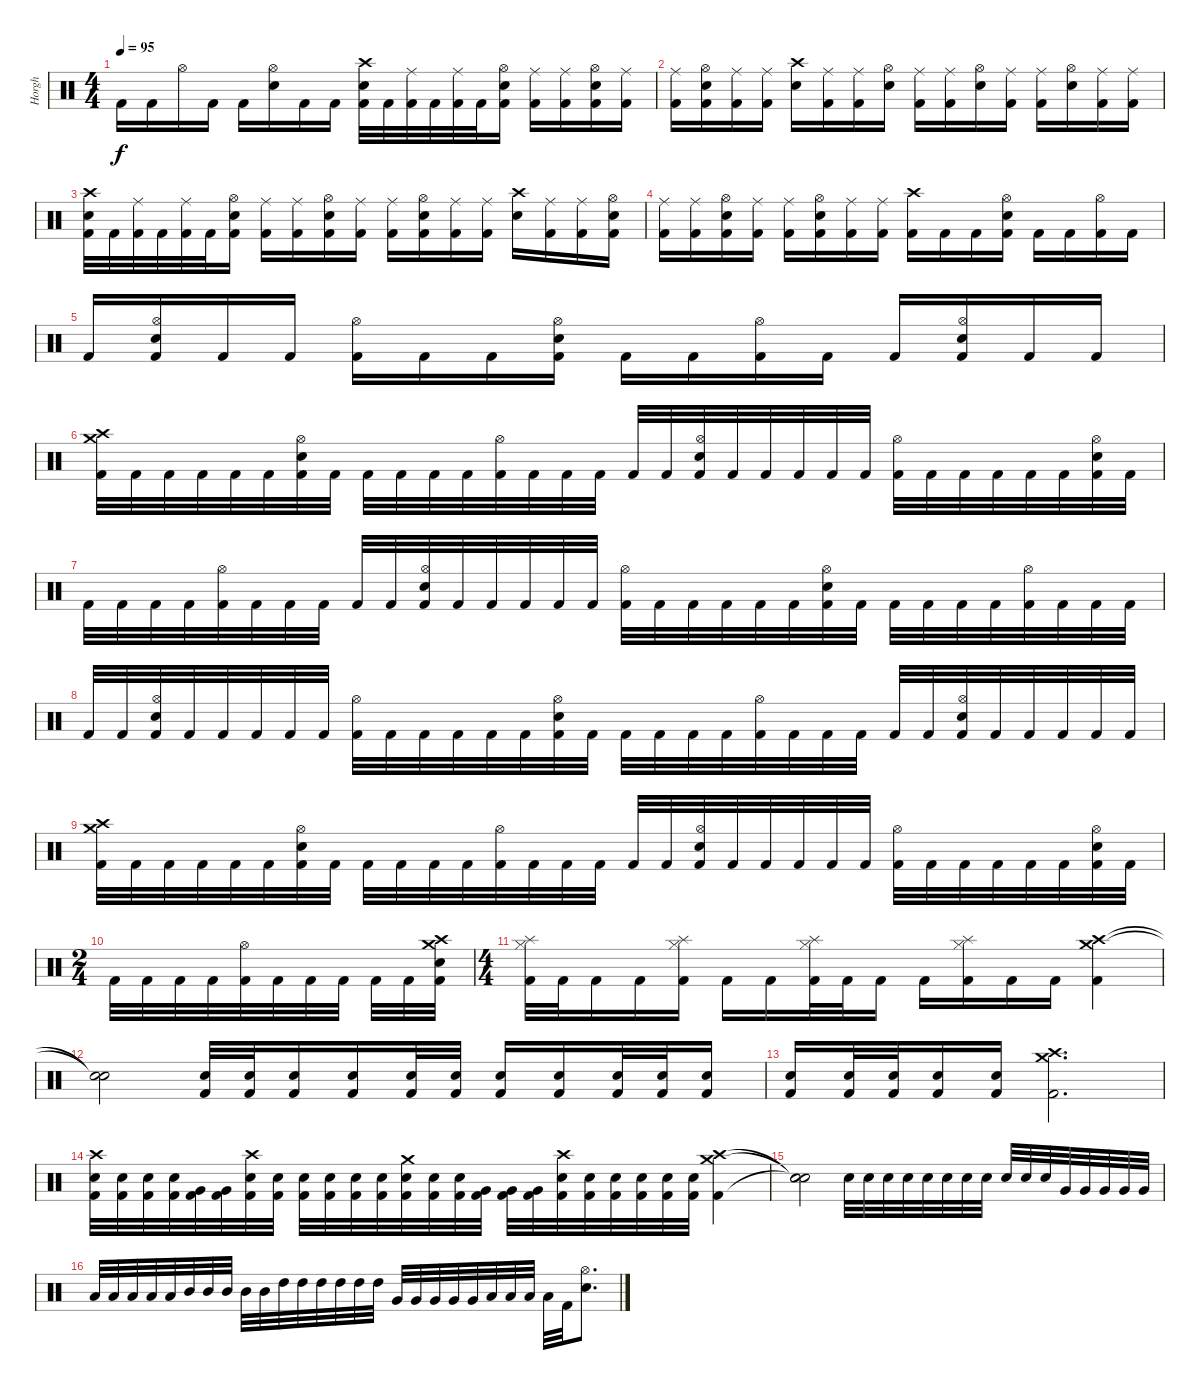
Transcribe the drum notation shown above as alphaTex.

\track ("Horgh" "Horgh") {instrument percussion}
\staff {score}
\articulation defaults
\ts (4 4)
\tempo 95
\clef neutral
\ks c "Kick (hit) 2".16{dy f} "Kick (hit) 2".16 "Hi-Hat (open)".16 "Kick (hit) 2".16 "Kick (hit) 2".16
("Hi-Hat (open)" "Snare (hit) 2").16 "Kick (hit) 2".16 "Kick (hit) 2".16 ("Crash high (hit)" "Snare (hit) 2" "Kick (hit) 2").32 "Kick (hit) 2".32 ("Ride (middle)" "Kick (hit) 2").32 "Kick (hit) 2".32 ("Ride (middle)" "Kick (hit) 2").32 "Kick (hit) 2".32 ("Hi-Hat (open)" "Snare (hit) 2" "Kick (hit) 2").16 ("Ride (middle)" "Kick (hit) 2").16 ("Ride (middle)" "Kick (hit) 2").16 ("Hi-Hat (open)" "Snare (hit) 2" "Kick (hit) 2").16 ("Ride (middle)" "Kick (hit) 2").16 |
("Ride (middle)" "Kick (hit) 2").16 ("Hi-Hat (open)" "Snare (hit) 2" "Kick (hit) 2").16 ("Ride (middle)" "Kick (hit) 2").16 ("Ride (middle)" "Kick (hit) 2").16 ("Crash high (hit)" "Snare (hit) 2").16 ("Ride (middle)" "Kick (hit) 2").16 ("Ride (middle)" "Kick (hit) 2").16 ("Hi-Hat (open)" "Snare (hit) 2").16 ("Ride (middle)" "Kick (hit) 2").16 ("Ride (middle)" "Kick (hit) 2").16 ("Hi-Hat (open)" "Snare (hit) 2").16 ("Ride (middle)" "Kick (hit) 2").16 ("Ride (middle)" "Kick (hit) 2").16 ("Hi-Hat (open)" "Snare (hit) 2").16 ("Ride (middle)" "Kick (hit) 2").16 ("Ride (middle)" "Kick (hit) 2").16 |
("Crash high (hit)" "Snare (hit) 2" "Kick (hit) 2").32 "Kick (hit) 2".32 ("Ride (middle)" "Kick (hit) 2").32 "Kick (hit) 2".32 ("Ride (middle)" "Kick (hit) 2").32 "Kick (hit) 2".32 ("Hi-Hat (open)" "Snare (hit) 2" "Kick (hit) 2").16 ("Ride (middle)" "Kick (hit) 2").16 ("Ride (middle)" "Kick (hit) 2").16 ("Hi-Hat (open)" "Snare (hit) 2" "Kick (hit) 2").16 ("Ride (middle)" "Kick (hit) 2").16 ("Ride (middle)" "Kick (hit) 2").16 ("Hi-Hat (open)" "Snare (hit) 2" "Kick (hit) 2").16 ("Ride (middle)" "Kick (hit) 2").16 ("Ride (middle)" "Kick (hit) 2").16 ("Crash high (hit)" "Snare (hit) 2").16 ("Ride (middle)" "Kick (hit) 2").16 ("Ride (middle)" "Kick (hit) 2").16 ("Hi-Hat (open)" "Snare (hit) 2" "Kick (hit) 2").16 |
("Ride (middle)" "Kick (hit) 2").16 ("Ride (middle)" "Kick (hit) 2").16 ("Hi-Hat (open)" "Snare (hit) 2" "Kick (hit) 2").16 ("Ride (middle)" "Kick (hit) 2").16 ("Ride (middle)" "Kick (hit) 2").16 ("Hi-Hat (open)" "Snare (hit) 2" "Kick (hit) 2").16 ("Ride (middle)" "Kick (hit) 2").16 ("Ride (middle)" "Kick (hit) 2").16 ("Crash high (hit)" "Kick (hit) 2").16 "Kick (hit) 2".16 "Kick (hit) 2".16 ("Hi-Hat (open)" "Snare (hit) 2" "Kick (hit) 2").16 "Kick (hit) 2".16 "Kick (hit) 2".16 ("Hi-Hat (open)" "Kick (hit) 2").16 "Kick (hit) 2".16 |
"Kick (hit) 2".16 ("Hi-Hat (open)" "Snare (hit) 2" "Kick (hit) 2").16 "Kick (hit) 2".16 "Kick (hit) 2".16 ("Hi-Hat (open)" "Kick (hit) 2").16 "Kick (hit) 2".16 "Kick (hit) 2".16 ("Hi-Hat (open)" "Snare (hit) 2" "Kick (hit) 2").16 "Kick (hit) 2".16 "Kick (hit) 2".16 ("Hi-Hat (open)" "Kick (hit) 2").16 "Kick (hit) 2".16 "Kick (hit) 2".16 ("Hi-Hat (open)" "Snare (hit) 2" "Kick (hit) 2").16 "Kick (hit) 2".16 "Kick (hit) 2".16 |
("Crash high (hit)" "Crash medium (hit)" "Kick (hit) 2").32 "Kick (hit) 2".32 "Kick (hit) 2".32 "Kick (hit) 2".32 "Kick (hit) 2".32 "Kick (hit) 2".32 ("Hi-Hat (open)" "Snare (hit) 2" "Kick (hit) 2").32 "Kick (hit) 2".32 "Kick (hit) 2".32 "Kick (hit) 2".32 "Kick (hit) 2".32 "Kick (hit) 2".32 ("Hi-Hat (open)" "Kick (hit) 2").32 "Kick (hit) 2".32 "Kick (hit) 2".32 "Kick (hit) 2".32 "Kick (hit) 2".32 "Kick (hit) 2".32 ("Hi-Hat (open)" "Snare (hit) 2" "Kick (hit) 2").32 "Kick (hit) 2".32 "Kick (hit) 2".32 "Kick (hit) 2".32 "Kick (hit) 2".32 "Kick (hit) 2".32 ("Hi-Hat (open)" "Kick (hit) 2").32 "Kick (hit) 2".32 "Kick (hit) 2".32 "Kick (hit) 2".32 "Kick (hit) 2".32 "Kick (hit) 2".32 ("Hi-Hat (open)" "Snare (hit) 2" "Kick (hit) 2").32 "Kick (hit) 2".32 |
"Kick (hit) 2".32 "Kick (hit) 2".32 "Kick (hit) 2".32 "Kick (hit) 2".32 ("Hi-Hat (open)" "Kick (hit) 2").32 "Kick (hit) 2".32 "Kick (hit) 2".32 "Kick (hit) 2".32 "Kick (hit) 2".32 "Kick (hit) 2".32 ("Hi-Hat (open)" "Snare (hit) 2" "Kick (hit) 2").32 "Kick (hit) 2".32 "Kick (hit) 2".32 "Kick (hit) 2".32 "Kick (hit) 2".32 "Kick (hit) 2".32 ("Hi-Hat (open)" "Kick (hit) 2").32 "Kick (hit) 2".32 "Kick (hit) 2".32 "Kick (hit) 2".32 "Kick (hit) 2".32 "Kick (hit) 2".32 ("Hi-Hat (open)" "Snare (hit) 2" "Kick (hit) 2").32 "Kick (hit) 2".32 "Kick (hit) 2".32 "Kick (hit) 2".32 "Kick (hit) 2".32 "Kick (hit) 2".32 ("Hi-Hat (open)" "Kick (hit) 2").32 "Kick (hit) 2".32 "Kick (hit) 2".32 "Kick (hit) 2".32 |
"Kick (hit) 2".32 "Kick (hit) 2".32 ("Hi-Hat (open)" "Snare (hit) 2" "Kick (hit) 2").32 "Kick (hit) 2".32 "Kick (hit) 2".32 "Kick (hit) 2".32 "Kick (hit) 2".32 "Kick (hit) 2".32 ("Hi-Hat (open)" "Kick (hit) 2").32 "Kick (hit) 2".32 "Kick (hit) 2".32 "Kick (hit) 2".32 "Kick (hit) 2".32 "Kick (hit) 2".32 ("Hi-Hat (open)" "Snare (hit) 2" "Kick (hit) 2").32 "Kick (hit) 2".32 "Kick (hit) 2".32 "Kick (hit) 2".32 "Kick (hit) 2".32 "Kick (hit) 2".32 ("Hi-Hat (open)" "Kick (hit) 2").32 "Kick (hit) 2".32 "Kick (hit) 2".32 "Kick (hit) 2".32 "Kick (hit) 2".32 "Kick (hit) 2".32 ("Hi-Hat (open)" "Snare (hit) 2" "Kick (hit) 2").32 "Kick (hit) 2".32 "Kick (hit) 2".32 "Kick (hit) 2".32 "Kick (hit) 2".32 "Kick (hit) 2".32 |
("Crash high (hit)" "Crash medium (hit)" "Kick (hit) 2").32 "Kick (hit) 2".32 "Kick (hit) 2".32 "Kick (hit) 2".32 "Kick (hit) 2".32 "Kick (hit) 2".32 ("Hi-Hat (open)" "Snare (hit) 2" "Kick (hit) 2").32 "Kick (hit) 2".32 "Kick (hit) 2".32 "Kick (hit) 2".32 "Kick (hit) 2".32 "Kick (hit) 2".32 ("Hi-Hat (open)" "Kick (hit) 2").32 "Kick (hit) 2".32 "Kick (hit) 2".32 "Kick (hit) 2".32 "Kick (hit) 2".32 "Kick (hit) 2".32 ("Hi-Hat (open)" "Snare (hit) 2" "Kick (hit) 2").32 "Kick (hit) 2".32 "Kick (hit) 2".32 "Kick (hit) 2".32 "Kick (hit) 2".32 "Kick (hit) 2".32 ("Hi-Hat (open)" "Kick (hit) 2").32 "Kick (hit) 2".32 "Kick (hit) 2".32 "Kick (hit) 2".32 "Kick (hit) 2".32 "Kick (hit) 2".32 ("Hi-Hat (open)" "Snare (hit) 2" "Kick (hit) 2").32 "Kick (hit) 2".32 |
\ts (2 4)
"Kick (hit) 2".32 "Kick (hit) 2".32 "Kick (hit) 2".32 "Kick (hit) 2".32 ("Hi-Hat (open)" "Kick (hit) 2").32 "Kick (hit) 2".32 "Kick (hit) 2".32 "Kick (hit) 2".32 "Kick (hit) 2".32 "Kick (hit) 2".32 ("Crash high (hit)" "Crash medium (hit)" "Snare (hit) 2" "Kick (hit) 2").32 |
\ts (4 4)
("Hi-Hat (closed)" "Splash (hit)" "Kick (hit) 2").32 "Kick (hit) 2".32 "Kick (hit) 2".16 "Kick (hit) 2".16 ("Splash (hit)" "Hi-Hat (closed)" "Kick (hit) 2").16 "Kick (hit) 2".16 "Kick (hit) 2".16 ("Splash (hit)" "Hi-Hat (closed)" "Kick (hit) 2").32 "Kick (hit) 2".32 "Kick (hit) 2".16 "Kick (hit) 2".16 ("Splash (hit)" "Hi-Hat (closed)" "Kick (hit) 2").16 "Kick (hit) 2".16 "Kick (hit) 2".16 ("Crash medium (hit)" "Crash high (hit)" "Kick (hit) 2").4 |
("Snare (hit)"{t} "Snare (hit)"{t}).2 ("Snare (hit) 2" "Kick (hit) 2").32 ("Snare (hit) 2" "Kick (hit) 2").32 ("Snare (hit) 2" "Kick (hit) 2").16 ("Snare (hit) 2" "Kick (hit) 2").16 ("Snare (hit) 2" "Kick (hit) 2").32 ("Snare (hit) 2" "Kick (hit) 2").32 ("Snare (hit) 2" "Kick (hit) 2").16 ("Snare (hit) 2" "Kick (hit) 2").16 ("Snare (hit) 2" "Kick (hit) 2").32 ("Snare (hit) 2" "Kick (hit) 2").32 ("Snare (hit) 2" "Kick (hit) 2").16 |
("Snare (hit) 2" "Kick (hit) 2").16 ("Snare (hit) 2" "Kick (hit) 2").32 ("Snare (hit) 2" "Kick (hit) 2").32 ("Snare (hit) 2" "Kick (hit) 2").16 ("Snare (hit) 2" "Kick (hit) 2").16 ("Crash high (hit)" "Crash medium (hit)" "Kick (hit) 2").2{d} |
("Crash high (hit)" "Snare (hit) 2" "Kick (hit) 2").32 ("Snare (hit) 2" "Kick (hit) 2").32 ("Snare (hit) 2" "Kick (hit) 2").32 ("Snare (hit) 2" "Kick (hit) 2").32 ("Very Low Tom (hit)" "Kick (hit) 2").32 ("Very Low Tom (hit)" "Kick (hit) 2").32 ("Crash high (hit)" "Snare (hit) 2" "Kick (hit) 2").32 ("Snare (hit) 2" "Kick (hit) 2").32 ("Snare (hit) 2" "Kick (hit) 2").32 ("Snare (hit) 2" "Kick (hit) 2").32 ("Snare (hit) 2" "Kick (hit) 2").32 ("Snare (hit) 2" "Kick (hit) 2").32 ("Crash medium (hit)" "Snare (hit) 2" "Kick (hit) 2").32 ("Snare (hit) 2" "Kick (hit) 2").32 ("Snare (hit) 2" "Kick (hit) 2").32 ("Very Low Tom (hit)" "Kick (hit) 2").32 ("Very Low Tom (hit)" "Kick (hit) 2").32 ("Very Low Tom (hit)" "Kick (hit) 2").32 ("Crash high (hit)" "Snare (hit) 2" "Kick (hit) 2").32 ("Snare (hit) 2" "Kick (hit) 2").32 ("Snare (hit) 2" "Kick (hit) 2").32 ("Snare (hit) 2" "Kick (hit) 2").32 ("Snare (hit) 2" "Kick (hit) 2").32 ("Snare (hit) 2" "Kick (hit) 2").32 ("Crash high (hit)" "Crash medium (hit)" "Kick (hit) 2").4 |
("Snare (hit)"{t} "Snare (hit)"{t} "Snare (hit)"{t}).2 "Snare (hit) 2".32 "Snare (hit) 2".32 "Snare (hit) 2".32 "Snare (hit) 2".32 "Snare (hit) 2".32 "Snare (hit) 2".32 "Snare (hit) 2".32 "Snare (hit) 2".32 "Snare (hit) 2".32 "Snare (hit) 2".32 "Snare (hit) 2".32 "Very Low Tom (hit)".32 "Very Low Tom (hit)".32 "Very Low Tom (hit)".32 "Very Low Tom (hit)".32 "Very Low Tom (hit)".32 |
"Low Tom (hit)".32 "Low Tom (hit)".32 "Low Tom (hit)".32 "Low Tom (hit)".32 "Low Tom (hit)".32 "Mid Tom (hit)".32 "Mid Tom (hit)".32 "Mid Tom (hit)".32 "Mid Tom (hit)".32 "Mid Tom (hit)".32 "High Tom (hit)".32 "High Tom (hit)".32 "High Tom (hit)".32 "High Tom (hit)".32 "High Tom (hit)".32 "High Tom (hit)".32 "Very Low Tom (hit)".32 "Very Low Tom (hit)".32 "Very Low Tom (hit)".32 "Very Low Tom (hit)".32 "Very Low Tom (hit)".32 "Low Tom (hit)".32 "Low Tom (hit)".32 "Low Tom (hit)".32 "Low Tom (hit)".32 "Kick (hit) 2".32 ("Hi-Hat (open)" "Snare (hit) 2").8{d}
